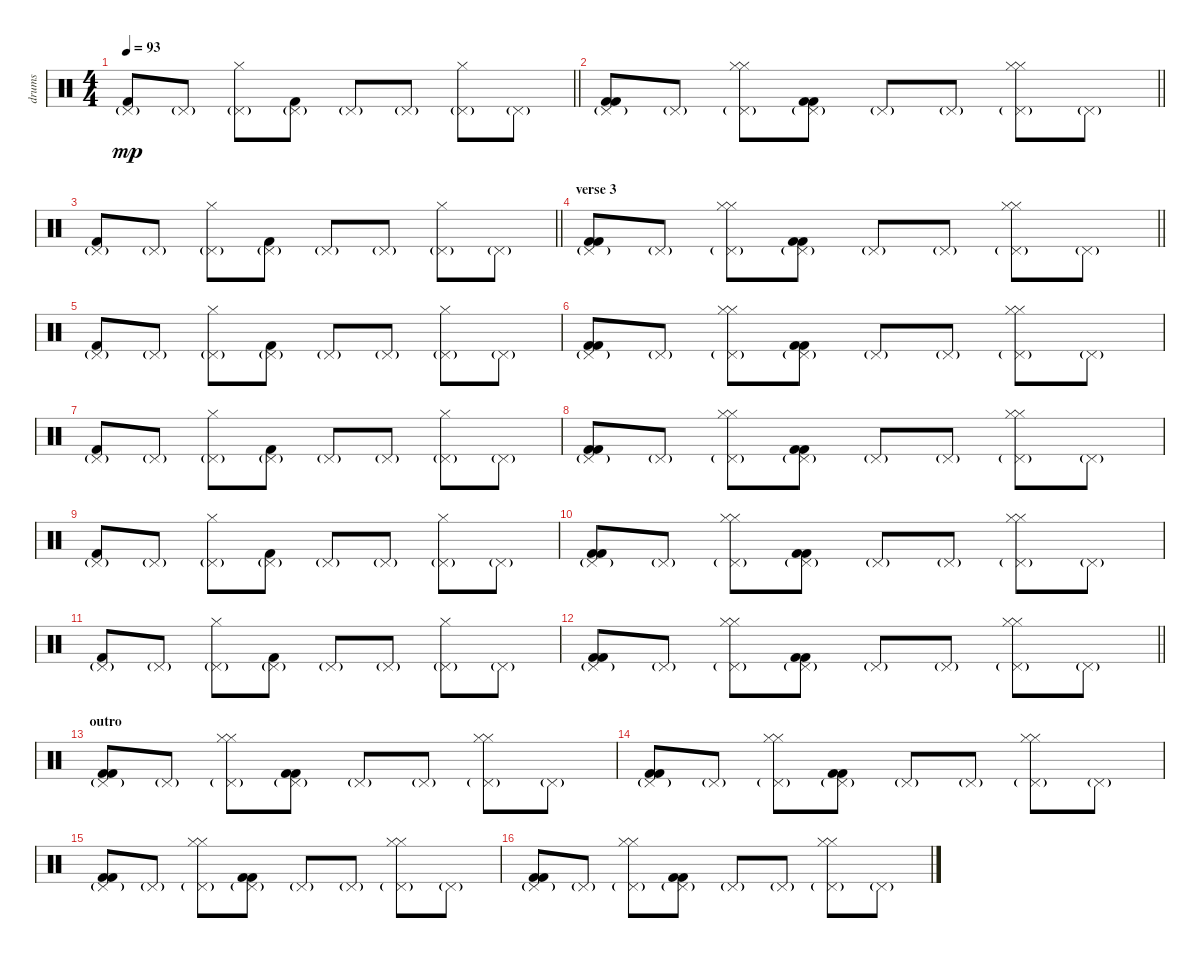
\track ("drums" "drums") {instrument percussion}
\staff {score}
\articulation defaults
\ts (4 4)
\tempo 93
\clef neutral
\barLineRight lightlight
\ks c
("Kick (hit) 2" "Pedal Hi-Hat (hit)"{g}).8{dy mp} "Pedal Hi-Hat (hit)"{g}.8 ("Hi-Hat (closed)" "Pedal Hi-Hat (hit)"{g}).8 ("Kick (hit) 2" "Pedal Hi-Hat (hit)"{g}).8 "Pedal Hi-Hat (hit)"{g}.8 "Pedal Hi-Hat (hit)"{g}.8 ("Hi-Hat (closed)" "Pedal Hi-Hat (hit)"{g}).8 "Pedal Hi-Hat (hit)"{g}.8 |
\barLineRight lightlight
("Kick (hit) 2" "Kick (hit) 2" "Pedal Hi-Hat (hit)"{g}).8 "Pedal Hi-Hat (hit)"{g}.8 ("Hi-Hat (closed)" "Hi-Hat (closed)" "Pedal Hi-Hat (hit)"{g}).8 ("Kick (hit) 2" "Kick (hit) 2" "Pedal Hi-Hat (hit)"{g}).8 "Pedal Hi-Hat (hit)"{g}.8 "Pedal Hi-Hat (hit)"{g}.8 ("Hi-Hat (closed)" "Hi-Hat (closed)" "Pedal Hi-Hat (hit)"{g}).8 "Pedal Hi-Hat (hit)"{g}.8 |
\barLineRight lightlight
("Kick (hit) 2" "Pedal Hi-Hat (hit)"{g}).8 "Pedal Hi-Hat (hit)"{g}.8 ("Hi-Hat (closed)" "Pedal Hi-Hat (hit)"{g}).8 ("Kick (hit) 2" "Pedal Hi-Hat (hit)"{g}).8 "Pedal Hi-Hat (hit)"{g}.8 "Pedal Hi-Hat (hit)"{g}.8 ("Hi-Hat (closed)" "Pedal Hi-Hat (hit)"{g}).8 "Pedal Hi-Hat (hit)"{g}.8 |
\section ("" "verse 3")
\barLineRight lightlight
("Kick (hit) 2" "Kick (hit) 2" "Pedal Hi-Hat (hit)"{g}).8 "Pedal Hi-Hat (hit)"{g}.8 ("Hi-Hat (closed)" "Hi-Hat (closed)" "Pedal Hi-Hat (hit)"{g}).8 ("Kick (hit) 2" "Kick (hit) 2" "Pedal Hi-Hat (hit)"{g}).8 "Pedal Hi-Hat (hit)"{g}.8 "Pedal Hi-Hat (hit)"{g}.8 ("Hi-Hat (closed)" "Hi-Hat (closed)" "Pedal Hi-Hat (hit)"{g}).8 "Pedal Hi-Hat (hit)"{g}.8 |
("Kick (hit) 2" "Pedal Hi-Hat (hit)"{g}).8 "Pedal Hi-Hat (hit)"{g}.8 ("Hi-Hat (closed)" "Pedal Hi-Hat (hit)"{g}).8 ("Kick (hit) 2" "Pedal Hi-Hat (hit)"{g}).8 "Pedal Hi-Hat (hit)"{g}.8 "Pedal Hi-Hat (hit)"{g}.8 ("Hi-Hat (closed)" "Pedal Hi-Hat (hit)"{g}).8 "Pedal Hi-Hat (hit)"{g}.8 |
("Kick (hit) 2" "Kick (hit) 2" "Pedal Hi-Hat (hit)"{g}).8 "Pedal Hi-Hat (hit)"{g}.8 ("Hi-Hat (closed)" "Hi-Hat (closed)" "Pedal Hi-Hat (hit)"{g}).8 ("Kick (hit) 2" "Kick (hit) 2" "Pedal Hi-Hat (hit)"{g}).8 "Pedal Hi-Hat (hit)"{g}.8 "Pedal Hi-Hat (hit)"{g}.8 ("Hi-Hat (closed)" "Hi-Hat (closed)" "Pedal Hi-Hat (hit)"{g}).8 "Pedal Hi-Hat (hit)"{g}.8 |
("Kick (hit) 2" "Pedal Hi-Hat (hit)"{g}).8 "Pedal Hi-Hat (hit)"{g}.8 ("Hi-Hat (closed)" "Pedal Hi-Hat (hit)"{g}).8 ("Kick (hit) 2" "Pedal Hi-Hat (hit)"{g}).8 "Pedal Hi-Hat (hit)"{g}.8 "Pedal Hi-Hat (hit)"{g}.8 ("Hi-Hat (closed)" "Pedal Hi-Hat (hit)"{g}).8 "Pedal Hi-Hat (hit)"{g}.8 |
("Kick (hit) 2" "Kick (hit) 2" "Pedal Hi-Hat (hit)"{g}).8 "Pedal Hi-Hat (hit)"{g}.8 ("Hi-Hat (closed)" "Hi-Hat (closed)" "Pedal Hi-Hat (hit)"{g}).8 ("Kick (hit) 2" "Kick (hit) 2" "Pedal Hi-Hat (hit)"{g}).8 "Pedal Hi-Hat (hit)"{g}.8 "Pedal Hi-Hat (hit)"{g}.8 ("Hi-Hat (closed)" "Hi-Hat (closed)" "Pedal Hi-Hat (hit)"{g}).8 "Pedal Hi-Hat (hit)"{g}.8 |
("Kick (hit) 2" "Pedal Hi-Hat (hit)"{g}).8 "Pedal Hi-Hat (hit)"{g}.8 ("Hi-Hat (closed)" "Pedal Hi-Hat (hit)"{g}).8 ("Kick (hit) 2" "Pedal Hi-Hat (hit)"{g}).8 "Pedal Hi-Hat (hit)"{g}.8 "Pedal Hi-Hat (hit)"{g}.8 ("Hi-Hat (closed)" "Pedal Hi-Hat (hit)"{g}).8 "Pedal Hi-Hat (hit)"{g}.8 |
("Kick (hit) 2" "Kick (hit) 2" "Pedal Hi-Hat (hit)"{g}).8 "Pedal Hi-Hat (hit)"{g}.8 ("Hi-Hat (closed)" "Hi-Hat (closed)" "Pedal Hi-Hat (hit)"{g}).8 ("Kick (hit) 2" "Kick (hit) 2" "Pedal Hi-Hat (hit)"{g}).8 "Pedal Hi-Hat (hit)"{g}.8 "Pedal Hi-Hat (hit)"{g}.8 ("Hi-Hat (closed)" "Hi-Hat (closed)" "Pedal Hi-Hat (hit)"{g}).8 "Pedal Hi-Hat (hit)"{g}.8 |
("Kick (hit) 2" "Pedal Hi-Hat (hit)"{g}).8 "Pedal Hi-Hat (hit)"{g}.8 ("Hi-Hat (closed)" "Pedal Hi-Hat (hit)"{g}).8 ("Kick (hit) 2" "Pedal Hi-Hat (hit)"{g}).8 "Pedal Hi-Hat (hit)"{g}.8 "Pedal Hi-Hat (hit)"{g}.8 ("Hi-Hat (closed)" "Pedal Hi-Hat (hit)"{g}).8 "Pedal Hi-Hat (hit)"{g}.8 |
\barLineRight lightlight
("Kick (hit) 2" "Kick (hit) 2" "Pedal Hi-Hat (hit)"{g}).8 "Pedal Hi-Hat (hit)"{g}.8 ("Hi-Hat (closed)" "Hi-Hat (closed)" "Pedal Hi-Hat (hit)"{g}).8 ("Kick (hit) 2" "Kick (hit) 2" "Pedal Hi-Hat (hit)"{g}).8 "Pedal Hi-Hat (hit)"{g}.8 "Pedal Hi-Hat (hit)"{g}.8 ("Hi-Hat (closed)" "Hi-Hat (closed)" "Pedal Hi-Hat (hit)"{g}).8 "Pedal Hi-Hat (hit)"{g}.8 |
\section ("" "outro")
("Kick (hit) 2" "Kick (hit) 2" "Pedal Hi-Hat (hit)"{g}).8 "Pedal Hi-Hat (hit)"{g}.8 ("Hi-Hat (closed)" "Hi-Hat (closed)" "Pedal Hi-Hat (hit)"{g}).8 ("Kick (hit) 2" "Kick (hit) 2" "Pedal Hi-Hat (hit)"{g}).8 "Pedal Hi-Hat (hit)"{g}.8 "Pedal Hi-Hat (hit)"{g}.8 ("Hi-Hat (closed)" "Hi-Hat (closed)" "Pedal Hi-Hat (hit)"{g}).8 "Pedal Hi-Hat (hit)"{g}.8 |
("Kick (hit) 2" "Kick (hit) 2" "Pedal Hi-Hat (hit)"{g}).8 "Pedal Hi-Hat (hit)"{g}.8 ("Hi-Hat (closed)" "Hi-Hat (closed)" "Pedal Hi-Hat (hit)"{g}).8 ("Kick (hit) 2" "Kick (hit) 2" "Pedal Hi-Hat (hit)"{g}).8 "Pedal Hi-Hat (hit)"{g}.8 "Pedal Hi-Hat (hit)"{g}.8 ("Hi-Hat (closed)" "Hi-Hat (closed)" "Pedal Hi-Hat (hit)"{g}).8 "Pedal Hi-Hat (hit)"{g}.8 |
("Kick (hit) 2" "Kick (hit) 2" "Pedal Hi-Hat (hit)"{g}).8 "Pedal Hi-Hat (hit)"{g}.8 ("Hi-Hat (closed)" "Hi-Hat (closed)" "Pedal Hi-Hat (hit)"{g}).8 ("Kick (hit) 2" "Kick (hit) 2" "Pedal Hi-Hat (hit)"{g}).8 "Pedal Hi-Hat (hit)"{g}.8 "Pedal Hi-Hat (hit)"{g}.8 ("Hi-Hat (closed)" "Hi-Hat (closed)" "Pedal Hi-Hat (hit)"{g}).8 "Pedal Hi-Hat (hit)"{g}.8 |
("Kick (hit) 2" "Kick (hit) 2" "Pedal Hi-Hat (hit)"{g}).8 "Pedal Hi-Hat (hit)"{g}.8 ("Hi-Hat (closed)" "Hi-Hat (closed)" "Pedal Hi-Hat (hit)"{g}).8 ("Kick (hit) 2" "Kick (hit) 2" "Pedal Hi-Hat (hit)"{g}).8 "Pedal Hi-Hat (hit)"{g}.8 "Pedal Hi-Hat (hit)"{g}.8 ("Hi-Hat (closed)" "Hi-Hat (closed)" "Pedal Hi-Hat (hit)"{g}).8 "Pedal Hi-Hat (hit)"{g}.8
